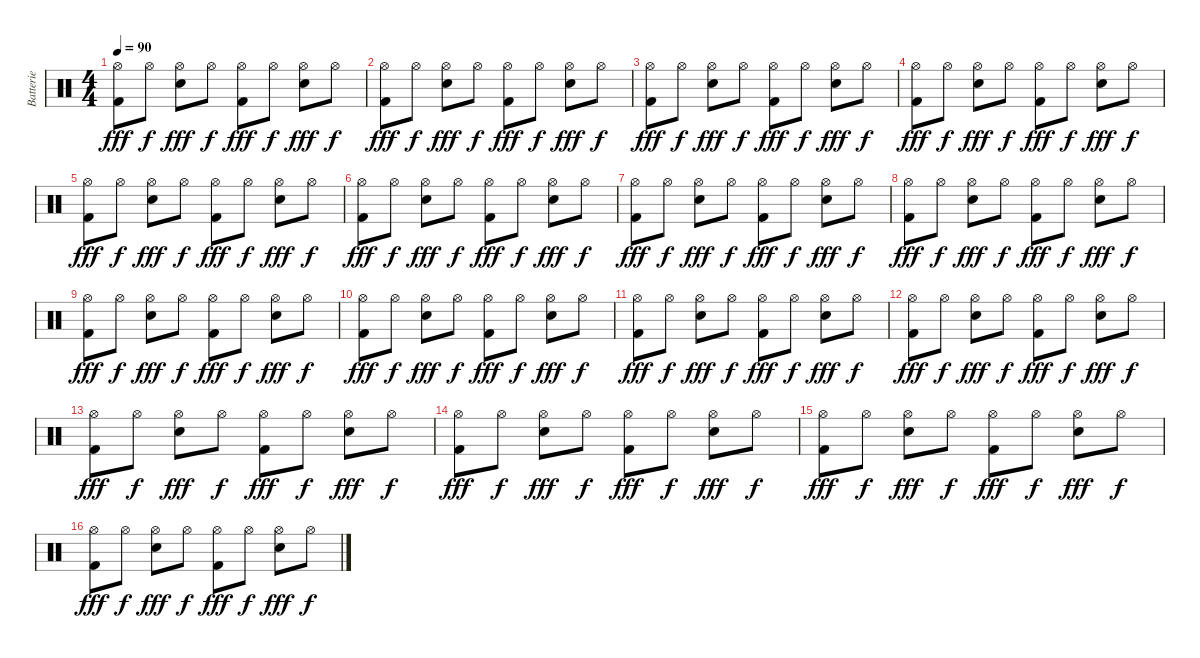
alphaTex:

\track ("Batterie" "Batterie") {instrument percussion}
\staff {score}
\articulation defaults
\ts (4 4)
\tempo 90
\clef neutral
\ks c
("Hi-Hat (open)" "Kick (hit) 2").8{dy fff} "Hi-Hat (open)".8{dy f} ("Hi-Hat (open)" "Snare (hit) 2").8{dy fff} "Hi-Hat (open)".8{dy f} ("Hi-Hat (open)" "Kick (hit) 2").8{dy fff} "Hi-Hat (open)".8{dy f} ("Hi-Hat (open)" "Snare (hit) 2").8{dy fff} "Hi-Hat (open)".8{dy f} |
("Hi-Hat (open)" "Kick (hit) 2").8{dy fff} "Hi-Hat (open)".8{dy f} ("Hi-Hat (open)" "Snare (hit) 2").8{dy fff} "Hi-Hat (open)".8{dy f} ("Hi-Hat (open)" "Kick (hit) 2").8{dy fff} "Hi-Hat (open)".8{dy f} ("Hi-Hat (open)" "Snare (hit) 2").8{dy fff} "Hi-Hat (open)".8{dy f} |
("Hi-Hat (open)" "Kick (hit) 2").8{dy fff} "Hi-Hat (open)".8{dy f} ("Hi-Hat (open)" "Snare (hit) 2").8{dy fff} "Hi-Hat (open)".8{dy f} ("Hi-Hat (open)" "Kick (hit) 2").8{dy fff} "Hi-Hat (open)".8{dy f} ("Hi-Hat (open)" "Snare (hit) 2").8{dy fff} "Hi-Hat (open)".8{dy f} |
("Hi-Hat (open)" "Kick (hit) 2").8{dy fff} "Hi-Hat (open)".8{dy f} ("Hi-Hat (open)" "Snare (hit) 2").8{dy fff} "Hi-Hat (open)".8{dy f} ("Hi-Hat (open)" "Kick (hit) 2").8{dy fff} "Hi-Hat (open)".8{dy f} ("Hi-Hat (open)" "Snare (hit) 2").8{dy fff} "Hi-Hat (open)".8{dy f} |
("Hi-Hat (open)" "Kick (hit) 2").8{dy fff} "Hi-Hat (open)".8{dy f} ("Hi-Hat (open)" "Snare (hit) 2").8{dy fff} "Hi-Hat (open)".8{dy f} ("Hi-Hat (open)" "Kick (hit) 2").8{dy fff} "Hi-Hat (open)".8{dy f} ("Hi-Hat (open)" "Snare (hit) 2").8{dy fff} "Hi-Hat (open)".8{dy f} |
("Hi-Hat (open)" "Kick (hit) 2").8{dy fff} "Hi-Hat (open)".8{dy f} ("Hi-Hat (open)" "Snare (hit) 2").8{dy fff} "Hi-Hat (open)".8{dy f} ("Hi-Hat (open)" "Kick (hit) 2").8{dy fff} "Hi-Hat (open)".8{dy f} ("Hi-Hat (open)" "Snare (hit) 2").8{dy fff} "Hi-Hat (open)".8{dy f} |
("Hi-Hat (open)" "Kick (hit) 2").8{dy fff} "Hi-Hat (open)".8{dy f} ("Hi-Hat (open)" "Snare (hit) 2").8{dy fff} "Hi-Hat (open)".8{dy f} ("Hi-Hat (open)" "Kick (hit) 2").8{dy fff} "Hi-Hat (open)".8{dy f} ("Hi-Hat (open)" "Snare (hit) 2").8{dy fff} "Hi-Hat (open)".8{dy f} |
("Hi-Hat (open)" "Kick (hit) 2").8{dy fff} "Hi-Hat (open)".8{dy f} ("Hi-Hat (open)" "Snare (hit) 2").8{dy fff} "Hi-Hat (open)".8{dy f} ("Hi-Hat (open)" "Kick (hit) 2").8{dy fff} "Hi-Hat (open)".8{dy f} ("Hi-Hat (open)" "Snare (hit) 2").8{dy fff} "Hi-Hat (open)".8{dy f} |
("Hi-Hat (open)" "Kick (hit) 2").8{dy fff} "Hi-Hat (open)".8{dy f} ("Hi-Hat (open)" "Snare (hit) 2").8{dy fff} "Hi-Hat (open)".8{dy f} ("Hi-Hat (open)" "Kick (hit) 2").8{dy fff} "Hi-Hat (open)".8{dy f} ("Hi-Hat (open)" "Snare (hit) 2").8{dy fff} "Hi-Hat (open)".8{dy f} |
("Hi-Hat (open)" "Kick (hit) 2").8{dy fff} "Hi-Hat (open)".8{dy f} ("Hi-Hat (open)" "Snare (hit) 2").8{dy fff} "Hi-Hat (open)".8{dy f} ("Hi-Hat (open)" "Kick (hit) 2").8{dy fff} "Hi-Hat (open)".8{dy f} ("Hi-Hat (open)" "Snare (hit) 2").8{dy fff} "Hi-Hat (open)".8{dy f} |
("Hi-Hat (open)" "Kick (hit) 2").8{dy fff} "Hi-Hat (open)".8{dy f} ("Hi-Hat (open)" "Snare (hit) 2").8{dy fff} "Hi-Hat (open)".8{dy f} ("Hi-Hat (open)" "Kick (hit) 2").8{dy fff} "Hi-Hat (open)".8{dy f} ("Hi-Hat (open)" "Snare (hit) 2").8{dy fff} "Hi-Hat (open)".8{dy f} |
("Hi-Hat (open)" "Kick (hit) 2").8{dy fff} "Hi-Hat (open)".8{dy f} ("Hi-Hat (open)" "Snare (hit) 2").8{dy fff} "Hi-Hat (open)".8{dy f} ("Hi-Hat (open)" "Kick (hit) 2").8{dy fff} "Hi-Hat (open)".8{dy f} ("Hi-Hat (open)" "Snare (hit) 2").8{dy fff} "Hi-Hat (open)".8{dy f} |
("Hi-Hat (open)" "Kick (hit) 2").8{dy fff} "Hi-Hat (open)".8{dy f} ("Hi-Hat (open)" "Snare (hit) 2").8{dy fff} "Hi-Hat (open)".8{dy f} ("Hi-Hat (open)" "Kick (hit) 2").8{dy fff} "Hi-Hat (open)".8{dy f} ("Hi-Hat (open)" "Snare (hit) 2").8{dy fff} "Hi-Hat (open)".8{dy f} |
("Hi-Hat (open)" "Kick (hit) 2").8{dy fff} "Hi-Hat (open)".8{dy f} ("Hi-Hat (open)" "Snare (hit) 2").8{dy fff} "Hi-Hat (open)".8{dy f} ("Hi-Hat (open)" "Kick (hit) 2").8{dy fff} "Hi-Hat (open)".8{dy f} ("Hi-Hat (open)" "Snare (hit) 2").8{dy fff} "Hi-Hat (open)".8{dy f} |
("Hi-Hat (open)" "Kick (hit) 2").8{dy fff} "Hi-Hat (open)".8{dy f} ("Hi-Hat (open)" "Snare (hit) 2").8{dy fff} "Hi-Hat (open)".8{dy f} ("Hi-Hat (open)" "Kick (hit) 2").8{dy fff} "Hi-Hat (open)".8{dy f} ("Hi-Hat (open)" "Snare (hit) 2").8{dy fff} "Hi-Hat (open)".8{dy f} |
("Hi-Hat (open)" "Kick (hit) 2").8{dy fff} "Hi-Hat (open)".8{dy f} ("Hi-Hat (open)" "Snare (hit) 2").8{dy fff} "Hi-Hat (open)".8{dy f} ("Hi-Hat (open)" "Kick (hit) 2").8{dy fff} "Hi-Hat (open)".8{dy f} ("Hi-Hat (open)" "Snare (hit) 2").8{dy fff} "Hi-Hat (open)".8{dy f}
